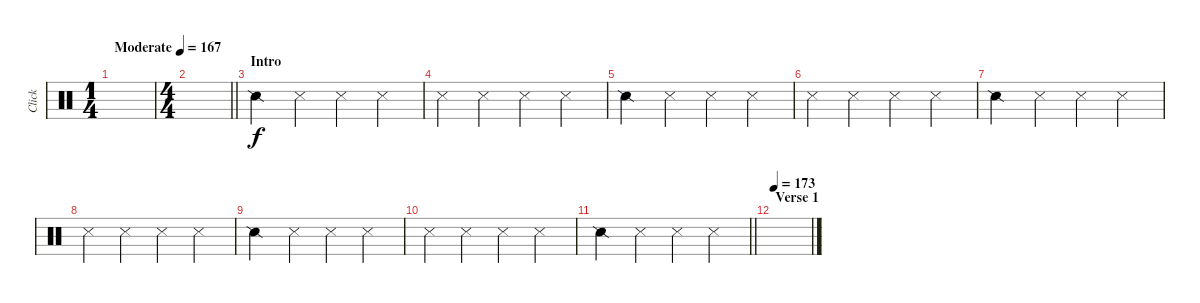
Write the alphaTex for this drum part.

\track ("Click" "Click") {instrument percussion}
\staff {score}
\articulation defaults
\ts (1 4)
\tempo (167 "Moderate")
\clef neutral
\ks c
|
\ts (4 4)
\barLineRight lightlight
|
\section ("" "Intro")
"Snare (side stick) 2".4 "Metronome (hit)".4 "Metronome (hit)".4 "Metronome (hit)".4 |
"Metronome (hit)".4 "Metronome (hit)".4 "Metronome (hit)".4 "Metronome (hit)".4 |
"Snare (side stick) 2".4 "Metronome (hit)".4 "Metronome (hit)".4 "Metronome (hit)".4 |
"Metronome (hit)".4 "Metronome (hit)".4 "Metronome (hit)".4 "Metronome (hit)".4 |
"Snare (side stick) 2".4 "Metronome (hit)".4 "Metronome (hit)".4 "Metronome (hit)".4 |
"Metronome (hit)".4 "Metronome (hit)".4 "Metronome (hit)".4 "Metronome (hit)".4 |
"Snare (side stick) 2".4 "Metronome (hit)".4 "Metronome (hit)".4 "Metronome (hit)".4 |
"Metronome (hit)".4 "Metronome (hit)".4 "Metronome (hit)".4 "Metronome (hit)".4 |
\barLineRight lightlight "Snare (side stick) 2".4 "Metronome (hit)".4 "Metronome (hit)".4 "Metronome (hit)".4
|
\section ("" "Verse 1")
\tempo 173
